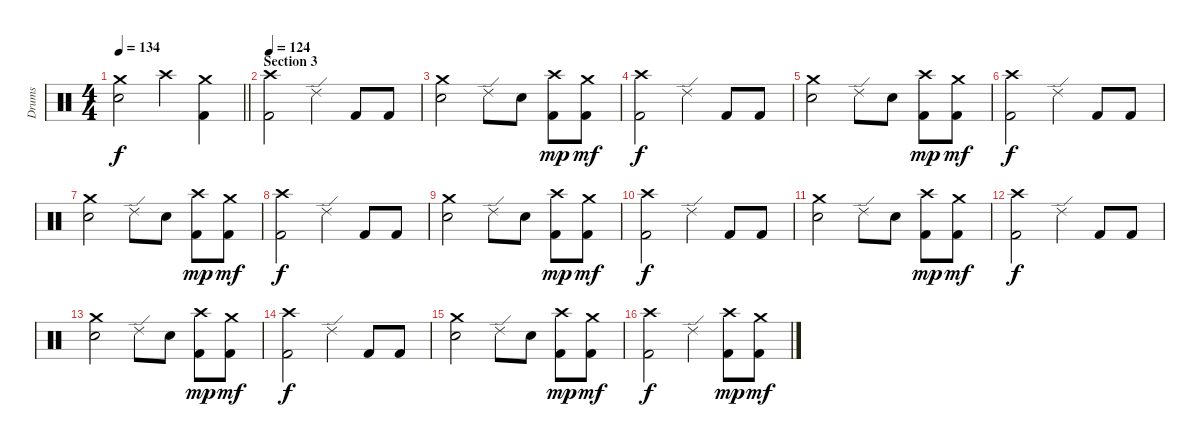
\track ("Drums" "Drums") {instrument percussion}
\staff {score}
\articulation defaults
\ts (4 4)
\tempo 134
\clef neutral
\barLineRight lightlight
\ks c
("Crash medium (hit)" "Electric Snare (hit)").2{dy f} "Crash high (hit)".4 ("Crash medium (hit)" "Kick (hit) 2").4 |
\section ("" "Section 3")
\tempo 124
("Crash high (hit)" "Kick (hit) 2").2 "Ride (edge) 2".4 "Kick (hit) 2".8 "Kick (hit) 2".8 |
("Crash medium (hit)" "Electric Snare (hit)").2 "Ride (edge) 2".8 "Electric Snare (hit)".8 ("Crash high (hit)" "Kick (hit) 2").8{dy mp} ("Crash medium (hit)" "Kick (hit) 2").8{dy mf} |
("Crash high (hit)" "Kick (hit) 2").2{dy f} "Ride (edge) 2".4 "Kick (hit) 2".8 "Kick (hit) 2".8 |
("Crash medium (hit)" "Electric Snare (hit)").2 "Ride (edge) 2".8 "Electric Snare (hit)".8 ("Crash high (hit)" "Kick (hit) 2").8{dy mp} ("Crash medium (hit)" "Kick (hit) 2").8{dy mf} |
("Crash high (hit)" "Kick (hit) 2").2{dy f} "Ride (edge) 2".4 "Kick (hit) 2".8 "Kick (hit) 2".8 |
("Crash medium (hit)" "Electric Snare (hit)").2 "Ride (edge) 2".8 "Electric Snare (hit)".8 ("Crash high (hit)" "Kick (hit) 2").8{dy mp} ("Crash medium (hit)" "Kick (hit) 2").8{dy mf} |
("Crash high (hit)" "Kick (hit) 2").2{dy f} "Ride (edge) 2".4 "Kick (hit) 2".8 "Kick (hit) 2".8 |
("Crash medium (hit)" "Electric Snare (hit)").2 "Ride (edge) 2".8 "Electric Snare (hit)".8 ("Crash high (hit)" "Kick (hit) 2").8{dy mp} ("Crash medium (hit)" "Kick (hit) 2").8{dy mf} |
("Crash high (hit)" "Kick (hit) 2").2{dy f} "Ride (edge) 2".4 "Kick (hit) 2".8 "Kick (hit) 2".8 |
("Crash medium (hit)" "Electric Snare (hit)").2 "Ride (edge) 2".8 "Electric Snare (hit)".8 ("Crash high (hit)" "Kick (hit) 2").8{dy mp} ("Crash medium (hit)" "Kick (hit) 2").8{dy mf} |
("Crash high (hit)" "Kick (hit) 2").2{dy f} "Ride (edge) 2".4 "Kick (hit) 2".8 "Kick (hit) 2".8 |
("Crash medium (hit)" "Electric Snare (hit)").2 "Ride (edge) 2".8 "Electric Snare (hit)".8 ("Crash high (hit)" "Kick (hit) 2").8{dy mp} ("Crash medium (hit)" "Kick (hit) 2").8{dy mf} |
("Crash high (hit)" "Kick (hit) 2").2{dy f} "Ride (edge) 2".4 "Kick (hit) 2".8 "Kick (hit) 2".8 |
("Crash medium (hit)" "Electric Snare (hit)").2 "Ride (edge) 2".8 "Electric Snare (hit)".8 ("Crash high (hit)" "Kick (hit) 2").8{dy mp} ("Crash medium (hit)" "Kick (hit) 2").8{dy mf} |
("Crash high (hit)" "Kick (hit) 2").2{dy f} "Ride (edge) 2".4 ("Crash high (hit)" "Kick (hit) 2").8{dy mp} ("Crash medium (hit)" "Kick (hit) 2").8{dy mf}
